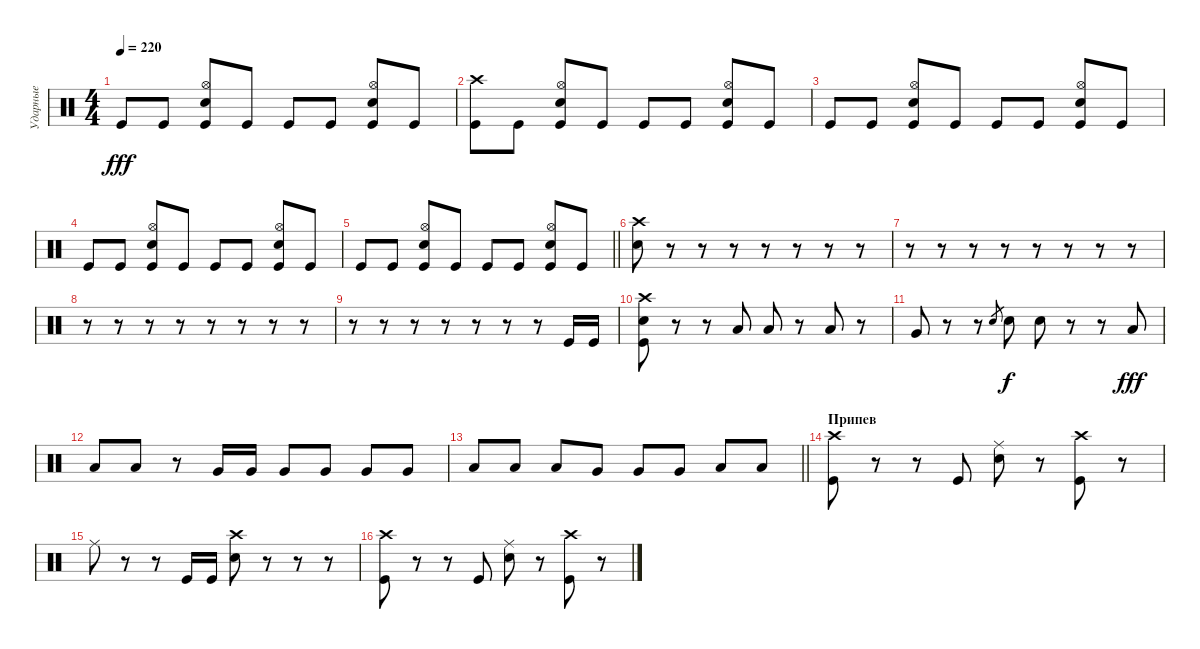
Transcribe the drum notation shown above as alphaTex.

\track ("Ударные" "Ударные") {instrument percussion}
\staff {score}
\articulation defaults
\ts (4 4)
\tempo 220
\clef neutral
\ks c "Kick (hit)".8{dy fff} "Kick (hit)".8
("Hi-Hat (open)" "Snare (hit) 2" "Kick (hit)").8 "Kick (hit)".8 "Kick (hit)".8 "Kick (hit)".8 ("Hi-Hat (open)" "Snare (hit) 2" "Kick (hit)").8 "Kick (hit)".8 |
("Crash high (hit)" "Kick (hit)").8 "Kick (hit)".8 ("Hi-Hat (open)" "Snare (hit) 2" "Kick (hit)").8 "Kick (hit)".8 "Kick (hit)".8 "Kick (hit)".8 ("Hi-Hat (open)" "Snare (hit) 2" "Kick (hit)").8 "Kick (hit)".8 |
"Kick (hit)".8 "Kick (hit)".8 ("Hi-Hat (open)" "Snare (hit) 2" "Kick (hit)").8 "Kick (hit)".8 "Kick (hit)".8 "Kick (hit)".8 ("Hi-Hat (open)" "Snare (hit) 2" "Kick (hit)").8 "Kick (hit)".8 |
"Kick (hit)".8 "Kick (hit)".8 ("Hi-Hat (open)" "Snare (hit) 2" "Kick (hit)").8 "Kick (hit)".8 "Kick (hit)".8 "Kick (hit)".8 ("Hi-Hat (open)" "Snare (hit) 2" "Kick (hit)").8 "Kick (hit)".8 |
\barLineRight lightlight "Kick (hit)".8 "Kick (hit)".8
("Hi-Hat (open)" "Snare (hit) 2" "Kick (hit)").8 "Kick (hit)".8 "Kick (hit)".8 "Kick (hit)".8 ("Hi-Hat (open)" "Snare (hit) 2" "Kick (hit)").8 "Kick (hit)".8 |
\section ("" "")
("Crash high (hit)" "Snare (hit) 2").8 r.8 r.8 r.8 r.8 r.8 r.8 r.8 |
r.8 r.8 r.8 r.8 r.8 r.8 r.8 r.8 |
r.8 r.8 r.8 r.8 r.8 r.8 r.8 r.8 |
r.8 r.8 r.8 r.8 r.8 r.8 r.8 "Kick (hit)".16 "Kick (hit)".16 |
("Crash high (hit)" "Snare (hit) 2" "Kick (hit)").8 r.8 r.8 "Low Floor Tom (hit)".8 "Low Floor Tom (hit)".8 r.8 "Low Floor Tom (hit)".8 r.8 |
"Very Low Tom (hit)".8 r.8 r.8 "Snare (hit) 2".8{gr} "Snare (hit) 2".8{dy f} "Snare (hit) 2".8 r.8 r.8 "Low Floor Tom (hit)".8{dy fff} |
"Low Floor Tom (hit)".8 "Low Floor Tom (hit)".8 r.8 "Very Low Tom (hit)".16 "Very Low Tom (hit)".16 "Very Low Tom (hit)".8 "Very Low Tom (hit)".8 "Very Low Tom (hit)".8 "Very Low Tom (hit)".8 |
\barLineRight lightlight "Low Floor Tom (hit)".8 "Low Floor Tom (hit)".8 "Low Floor Tom (hit)".8 "Very Low Tom (hit)".8 "Very Low Tom (hit)".8 "Very Low Tom (hit)".8 "Low Floor Tom (hit)".8 "Low Floor Tom (hit)".8
|
\section ("" "Припев")
("Crash high (hit)" "Kick (hit)").8 r.8 r.8 "Kick (hit)".8 ("Ride (middle)" "Snare (hit) 2").8 r.8 ("Crash high (hit)" "Kick (hit)").8 r.8 |
"Ride (middle)".8 r.8 r.8 "Kick (hit)".16 "Kick (hit)".16 ("Crash high (hit)" "Snare (hit) 2").8 r.8 r.8 r.8 |
("Crash high (hit)" "Kick (hit)").8 r.8 r.8 "Kick (hit)".8 ("Ride (middle)" "Snare (hit) 2").8 r.8 ("Crash high (hit)" "Kick (hit)").8 r.8
